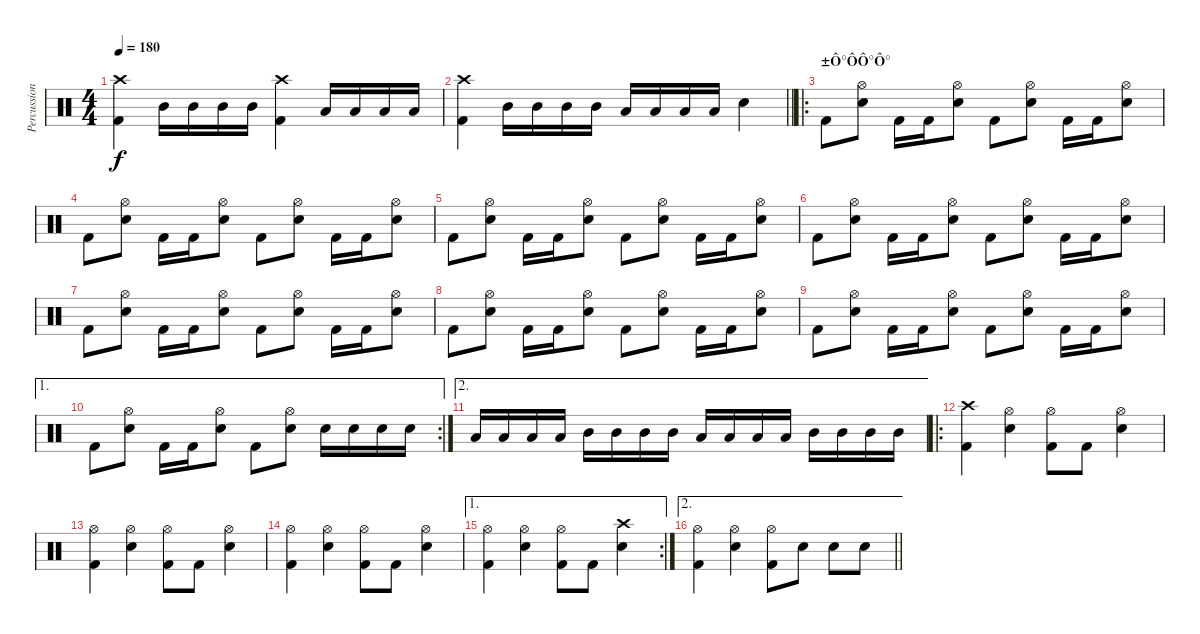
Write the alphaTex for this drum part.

\track ("Percussion" "Percussion") {instrument percussion}
\staff {score}
\articulation defaults
\ts (4 4)
\tempo 180
\clef neutral
\ks c
("Crash high (hit)" "Kick (hit) 2").4{dy f} "Mid Tom (hit)".16 "Mid Tom (hit)".16 "Mid Tom (hit)".16 "Mid Tom (hit)".16 ("Crash high (hit)" "Kick (hit) 2").4 "Low Tom (hit)".16 "Low Tom (hit)".16 "Low Tom (hit)".16 "Low Tom (hit)".16 |
\barLineRight lightlight
("Crash high (hit)" "Kick (hit) 2").4 "Mid Tom (hit)".16 "Mid Tom (hit)".16 "Mid Tom (hit)".16 "Mid Tom (hit)".16 "Low Tom (hit)".16 "Low Tom (hit)".16 "Low Tom (hit)".16 "Low Tom (hit)".16 "Snare (hit) 2".4 |
\ro
\section ("" "±Ô°ÔÔ°Ô°")
"Kick (hit) 2".8 ("Hi-Hat (open)" "Snare (hit) 2").8 "Kick (hit) 2".16 "Kick (hit) 2".16 ("Hi-Hat (open)" "Snare (hit) 2").8 "Kick (hit) 2".8 ("Hi-Hat (open)" "Snare (hit) 2").8 "Kick (hit) 2".16 "Kick (hit) 2".16 ("Hi-Hat (open)" "Snare (hit) 2").8 |
"Kick (hit) 2".8 ("Hi-Hat (open)" "Snare (hit) 2").8 "Kick (hit) 2".16 "Kick (hit) 2".16 ("Hi-Hat (open)" "Snare (hit) 2").8 "Kick (hit) 2".8 ("Hi-Hat (open)" "Snare (hit) 2").8 "Kick (hit) 2".16 "Kick (hit) 2".16 ("Hi-Hat (open)" "Snare (hit) 2").8 |
"Kick (hit) 2".8 ("Hi-Hat (open)" "Snare (hit) 2").8 "Kick (hit) 2".16 "Kick (hit) 2".16 ("Hi-Hat (open)" "Snare (hit) 2").8 "Kick (hit) 2".8 ("Hi-Hat (open)" "Snare (hit) 2").8 "Kick (hit) 2".16 "Kick (hit) 2".16 ("Hi-Hat (open)" "Snare (hit) 2").8 |
"Kick (hit) 2".8 ("Hi-Hat (open)" "Snare (hit) 2").8 "Kick (hit) 2".16 "Kick (hit) 2".16 ("Hi-Hat (open)" "Snare (hit) 2").8 "Kick (hit) 2".8 ("Hi-Hat (open)" "Snare (hit) 2").8 "Kick (hit) 2".16 "Kick (hit) 2".16 ("Hi-Hat (open)" "Snare (hit) 2").8 |
"Kick (hit) 2".8 ("Hi-Hat (open)" "Snare (hit) 2").8 "Kick (hit) 2".16 "Kick (hit) 2".16 ("Hi-Hat (open)" "Snare (hit) 2").8 "Kick (hit) 2".8 ("Hi-Hat (open)" "Snare (hit) 2").8 "Kick (hit) 2".16 "Kick (hit) 2".16 ("Hi-Hat (open)" "Snare (hit) 2").8 |
"Kick (hit) 2".8 ("Hi-Hat (open)" "Snare (hit) 2").8 "Kick (hit) 2".16 "Kick (hit) 2".16 ("Hi-Hat (open)" "Snare (hit) 2").8 "Kick (hit) 2".8 ("Hi-Hat (open)" "Snare (hit) 2").8 "Kick (hit) 2".16 "Kick (hit) 2".16 ("Hi-Hat (open)" "Snare (hit) 2").8 |
"Kick (hit) 2".8 ("Hi-Hat (open)" "Snare (hit) 2").8 "Kick (hit) 2".16 "Kick (hit) 2".16 ("Hi-Hat (open)" "Snare (hit) 2").8 "Kick (hit) 2".8 ("Hi-Hat (open)" "Snare (hit) 2").8 "Kick (hit) 2".16 "Kick (hit) 2".16 ("Hi-Hat (open)" "Snare (hit) 2").8 |
\ae 1
\rc 2 "Kick (hit) 2".8
("Hi-Hat (open)" "Snare (hit) 2").8 "Kick (hit) 2".16 "Kick (hit) 2".16 ("Hi-Hat (open)" "Snare (hit) 2").8 "Kick (hit) 2".8 ("Hi-Hat (open)" "Snare (hit) 2").8 "Snare (hit) 2".16 "Snare (hit) 2".16 "Snare (hit) 2".16 "Snare (hit) 2".16 |
\ae 2 "Low Tom (hit)".16 "Low Tom (hit)".16 "Low Tom (hit)".16 "Low Tom (hit)".16 "Mid Tom (hit)".16 "Mid Tom (hit)".16 "Mid Tom (hit)".16 "Mid Tom (hit)".16 "Low Tom (hit)".16 "Low Tom (hit)".16 "Low Tom (hit)".16 "Low Tom (hit)".16 "Mid Tom (hit)".16 "Mid Tom (hit)".16 "Mid Tom (hit)".16 "Mid Tom (hit)".16
|
\ro
("Crash high (hit)" "Kick (hit) 2").4 ("Hi-Hat (open)" "Snare (hit) 2").4 ("Hi-Hat (open)" "Kick (hit) 2").8 "Kick (hit) 2".8 ("Hi-Hat (open)" "Snare (hit) 2").4 |
("Hi-Hat (open)" "Kick (hit) 2").4 ("Hi-Hat (open)" "Snare (hit) 2").4 ("Hi-Hat (open)" "Kick (hit) 2").8 "Kick (hit) 2".8 ("Hi-Hat (open)" "Snare (hit) 2").4 |
("Hi-Hat (open)" "Kick (hit) 2").4 ("Hi-Hat (open)" "Snare (hit) 2").4 ("Hi-Hat (open)" "Kick (hit) 2").8 "Kick (hit) 2".8 ("Hi-Hat (open)" "Snare (hit) 2").4 |
\ae 1
\rc 2
("Hi-Hat (open)" "Kick (hit) 2").4 ("Hi-Hat (open)" "Snare (hit) 2").4 ("Hi-Hat (open)" "Kick (hit) 2").8 "Kick (hit) 2".8 ("Crash high (hit)" "Snare (hit) 2").4 |
\ae 2
\barLineRight lightlight
("Hi-Hat (open)" "Kick (hit) 2").4 ("Hi-Hat (open)" "Snare (hit) 2").4 ("Hi-Hat (open)" "Kick (hit) 2").8 "Snare (hit) 2".8 "Snare (hit) 2".8 "Snare (hit) 2".8
